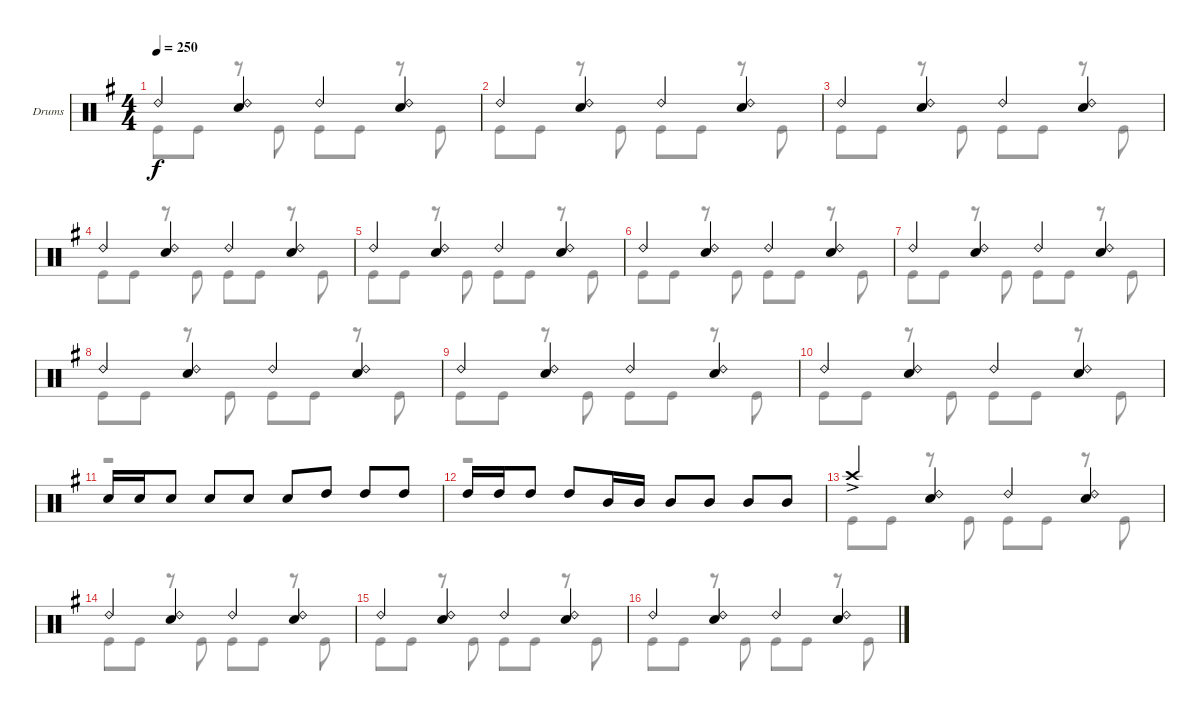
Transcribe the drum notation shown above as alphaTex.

\bracketExtendMode groupsimilarinstruments
\firstSystemTrackNameOrientation horizontal
\otherSystemsTrackNameOrientation horizontal
\track ("Drumkit" "Drums") {instrument percussion}
\staff {score}
\articulation defaults
\voice
\ts (4 4)
\tempo 250
\clef neutral
\ks g "Ride (bell) 2".4{dy f}
("Ride (bell) 2" "Snare (hit) 2").4 "Ride (bell) 2".4 ("Ride (bell) 2" "Snare (hit) 2").4 |
"Ride (bell) 2".4 ("Ride (bell) 2" "Snare (hit) 2").4 "Ride (bell) 2".4 ("Ride (bell) 2" "Snare (hit) 2").4 |
"Ride (bell) 2".4 ("Ride (bell) 2" "Snare (hit) 2").4 "Ride (bell) 2".4 ("Ride (bell) 2" "Snare (hit) 2").4 |
"Ride (bell) 2".4 ("Ride (bell) 2" "Snare (hit) 2").4 "Ride (bell) 2".4 ("Ride (bell) 2" "Snare (hit) 2").4 |
"Ride (bell) 2".4 ("Ride (bell) 2" "Snare (hit) 2").4 "Ride (bell) 2".4 ("Ride (bell) 2" "Snare (hit) 2").4 |
"Ride (bell) 2".4 ("Ride (bell) 2" "Snare (hit) 2").4 "Ride (bell) 2".4 ("Ride (bell) 2" "Snare (hit) 2").4 |
"Ride (bell) 2".4 ("Ride (bell) 2" "Snare (hit) 2").4 "Ride (bell) 2".4 ("Ride (bell) 2" "Snare (hit) 2").4 |
"Ride (bell) 2".4 ("Ride (bell) 2" "Snare (hit) 2").4 "Ride (bell) 2".4 ("Ride (bell) 2" "Snare (hit) 2").4 |
"Ride (bell) 2".4 ("Ride (bell) 2" "Snare (hit) 2").4 "Ride (bell) 2".4 ("Ride (bell) 2" "Snare (hit) 2").4 |
"Ride (bell) 2".4 ("Ride (bell) 2" "Snare (hit) 2").4 "Ride (bell) 2".4 ("Ride (bell) 2" "Snare (hit) 2").4 |
"Snare (hit) 2".16 "Snare (hit) 2".16 "Snare (hit) 2".8 "Snare (hit) 2".8 "Snare (hit) 2".8 "Snare (hit) 2".8 "High Tom (hit)".8 "High Tom (hit)".8 "High Tom (hit)".8 |
"High Tom (hit)".16 "High Tom (hit)".16 "High Tom (hit)".8 "High Tom (hit)".8 "Mid Tom (hit)".16 "Mid Tom (hit)".16 "Mid Tom (hit)".8 "Mid Tom (hit)".8 "Mid Tom (hit)".8 "Mid Tom (hit)".8 |
"Crash high (hit)"{ac}.4 ("Ride (bell) 2" "Snare (hit) 2").4 "Ride (bell) 2".4 ("Ride (bell) 2" "Snare (hit) 2").4 |
"Ride (bell) 2".4 ("Ride (bell) 2" "Snare (hit) 2").4 "Ride (bell) 2".4 ("Ride (bell) 2" "Snare (hit) 2").4 |
"Ride (bell) 2".4 ("Ride (bell) 2" "Snare (hit) 2").4 "Ride (bell) 2".4 ("Ride (bell) 2" "Snare (hit) 2").4 |
"Ride (bell) 2".4 ("Ride (bell) 2" "Snare (hit) 2").4 "Ride (bell) 2".4 ("Ride (bell) 2" "Snare (hit) 2").4
\voice
\clef neutral
\ottava regular
\simile none
\ks g "Kick (hit)".8{dy f} "Kick (hit)".8
r.8 "Kick (hit)".8 "Kick (hit)".8 "Kick (hit)".8 r.8 "Kick (hit)".8 |
"Kick (hit)".8 "Kick (hit)".8 r.8 "Kick (hit)".8 "Kick (hit)".8 "Kick (hit)".8 r.8 "Kick (hit)".8 |
"Kick (hit)".8 "Kick (hit)".8 r.8 "Kick (hit)".8 "Kick (hit)".8 "Kick (hit)".8 r.8 "Kick (hit)".8 |
"Kick (hit)".8 "Kick (hit)".8 r.8 "Kick (hit)".8 "Kick (hit)".8 "Kick (hit)".8 r.8 "Kick (hit)".8 |
"Kick (hit)".8 "Kick (hit)".8 r.8 "Kick (hit)".8 "Kick (hit)".8 "Kick (hit)".8 r.8 "Kick (hit)".8 |
"Kick (hit)".8 "Kick (hit)".8 r.8 "Kick (hit)".8 "Kick (hit)".8 "Kick (hit)".8 r.8 "Kick (hit)".8 |
"Kick (hit)".8 "Kick (hit)".8 r.8 "Kick (hit)".8 "Kick (hit)".8 "Kick (hit)".8 r.8 "Kick (hit)".8 |
"Kick (hit)".8 "Kick (hit)".8 r.8 "Kick (hit)".8 "Kick (hit)".8 "Kick (hit)".8 r.8 "Kick (hit)".8 |
"Kick (hit)".8 "Kick (hit)".8 r.8 "Kick (hit)".8 "Kick (hit)".8 "Kick (hit)".8 r.8 "Kick (hit)".8 |
"Kick (hit)".8 "Kick (hit)".8 r.8 "Kick (hit)".8 "Kick (hit)".8 "Kick (hit)".8 r.8 "Kick (hit)".8 |
r.1 |
r.1 |
"Kick (hit)".8 "Kick (hit)".8 r.8 "Kick (hit)".8 "Kick (hit)".8 "Kick (hit)".8 r.8 "Kick (hit)".8 |
"Kick (hit)".8 "Kick (hit)".8 r.8 "Kick (hit)".8 "Kick (hit)".8 "Kick (hit)".8 r.8 "Kick (hit)".8 |
"Kick (hit)".8 "Kick (hit)".8 r.8 "Kick (hit)".8 "Kick (hit)".8 "Kick (hit)".8 r.8 "Kick (hit)".8 |
"Kick (hit)".8 "Kick (hit)".8 r.8 "Kick (hit)".8 "Kick (hit)".8 "Kick (hit)".8 r.8 "Kick (hit)".8
